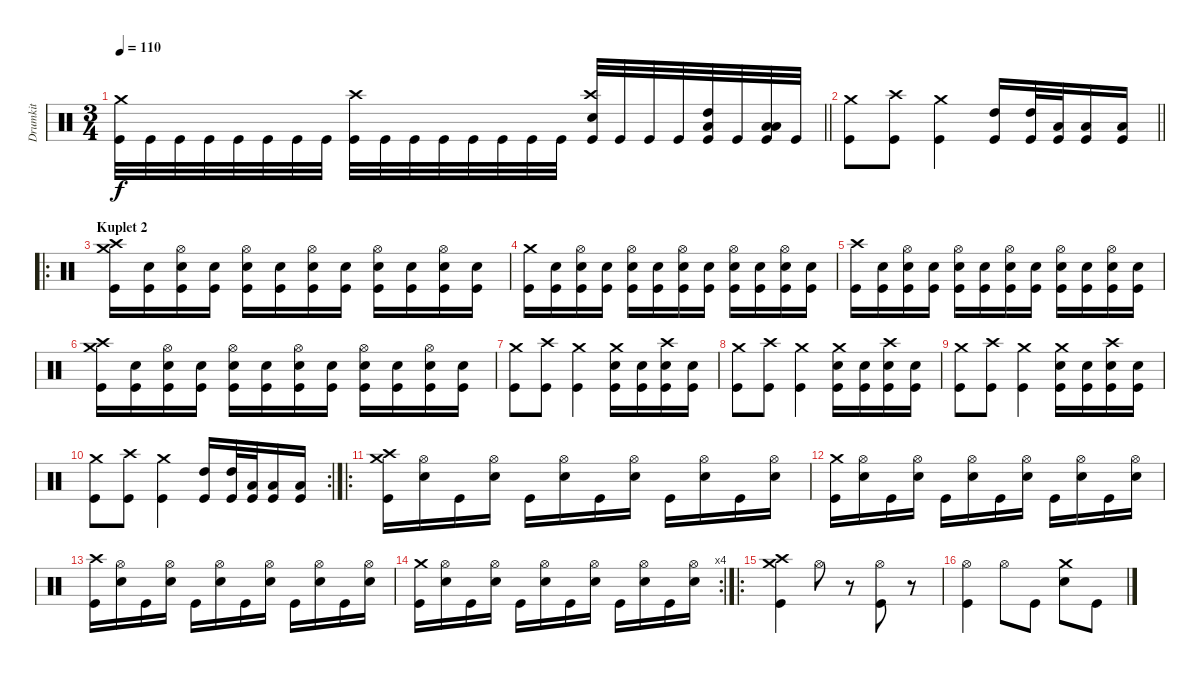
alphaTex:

\track ("Drumkit" "Drumkit") {instrument percussion}
\staff {score}
\articulation defaults
\ts (3 4)
\tempo 110
\clef neutral
\barLineRight lightlight
\ks c
("Crash medium (hit)" "Kick (hit)").32{dy f} "Kick (hit)".32 "Kick (hit)".32 "Kick (hit)".32 "Kick (hit)".32 "Kick (hit)".32 "Kick (hit)".32 "Kick (hit)".32 ("Crash high (hit)" "Kick (hit)").32 "Kick (hit)".32 "Kick (hit)".32 "Kick (hit)".32 "Kick (hit)".32 "Kick (hit)".32 "Kick (hit)".32 "Kick (hit)".32 ("Crash high (hit)" "Snare (hit) 2" "Kick (hit)").32 "Kick (hit)".32 "Kick (hit)".32 "Kick (hit)".32 ("Low Tom (hit)" "High Tom (hit)" "Kick (hit)").32 "Kick (hit)".32 ("Low Tom (hit)" "Low Floor Tom (hit)" "Kick (hit)").32 "Kick (hit)".32 |
\barLineRight lightlight
("Crash medium (hit)" "Kick (hit)").8 ("Crash high (hit)" "Kick (hit)").8 ("Crash medium (hit)" "Kick (hit)").4 ("High Tom (hit)" "Kick (hit)").16 ("High Tom (hit)" "Kick (hit)").32 ("Low Tom (hit)" "Kick (hit)").32 ("Low Tom (hit)" "Kick (hit)").16 ("Low Tom (hit)" "Kick (hit)").16 |
\ro
\section ("" "Kuplet 2")
("Crash high (hit)" "Crash medium (hit)" "Kick (hit)").16 ("Snare (hit) 2" "Kick (hit)").16 ("Hi-Hat (open)" "Snare (hit) 2" "Kick (hit)").16 ("Snare (hit) 2" "Kick (hit)").16 ("Hi-Hat (open)" "Snare (hit) 2" "Kick (hit)").16 ("Snare (hit) 2" "Kick (hit)").16 ("Hi-Hat (open)" "Snare (hit) 2" "Kick (hit)").16 ("Snare (hit) 2" "Kick (hit)").16 ("Hi-Hat (open)" "Snare (hit) 2" "Kick (hit)").16 ("Snare (hit) 2" "Kick (hit)").16 ("Hi-Hat (open)" "Snare (hit) 2" "Kick (hit)").16 ("Snare (hit) 2" "Kick (hit)").16 |
("Crash medium (hit)" "Kick (hit)").16 ("Snare (hit) 2" "Kick (hit)").16 ("Hi-Hat (open)" "Snare (hit) 2" "Kick (hit)").16 ("Snare (hit) 2" "Kick (hit)").16 ("Hi-Hat (open)" "Snare (hit) 2" "Kick (hit)").16 ("Snare (hit) 2" "Kick (hit)").16 ("Hi-Hat (open)" "Snare (hit) 2" "Kick (hit)").16 ("Snare (hit) 2" "Kick (hit)").16 ("Hi-Hat (open)" "Snare (hit) 2" "Kick (hit)").16 ("Snare (hit) 2" "Kick (hit)").16 ("Hi-Hat (open)" "Snare (hit) 2" "Kick (hit)").16 ("Snare (hit) 2" "Kick (hit)").16 |
("Crash high (hit)" "Kick (hit)").16 ("Snare (hit) 2" "Kick (hit)").16 ("Hi-Hat (open)" "Snare (hit) 2" "Kick (hit)").16 ("Snare (hit) 2" "Kick (hit)").16 ("Hi-Hat (open)" "Snare (hit) 2" "Kick (hit)").16 ("Snare (hit) 2" "Kick (hit)").16 ("Hi-Hat (open)" "Snare (hit) 2" "Kick (hit)").16 ("Snare (hit) 2" "Kick (hit)").16 ("Hi-Hat (open)" "Snare (hit) 2" "Kick (hit)").16 ("Snare (hit) 2" "Kick (hit)").16 ("Hi-Hat (open)" "Snare (hit) 2" "Kick (hit)").16 ("Snare (hit) 2" "Kick (hit)").16 |
("Crash high (hit)" "Crash medium (hit)" "Kick (hit)").16 ("Snare (hit) 2" "Kick (hit)").16 ("Hi-Hat (open)" "Snare (hit) 2" "Kick (hit)").16 ("Snare (hit) 2" "Kick (hit)").16 ("Hi-Hat (open)" "Snare (hit) 2" "Kick (hit)").16 ("Snare (hit) 2" "Kick (hit)").16 ("Hi-Hat (open)" "Snare (hit) 2" "Kick (hit)").16 ("Snare (hit) 2" "Kick (hit)").16 ("Hi-Hat (open)" "Snare (hit) 2" "Kick (hit)").16 ("Snare (hit) 2" "Kick (hit)").16 ("Hi-Hat (open)" "Snare (hit) 2" "Kick (hit)").16 ("Snare (hit) 2" "Kick (hit)").16 |
("Crash medium (hit)" "Kick (hit)").8 ("Crash high (hit)" "Kick (hit)").8 ("Crash medium (hit)" "Kick (hit)").4 ("Crash medium (hit)" "Snare (hit) 2" "Kick (hit)").16 ("Snare (hit) 2" "Kick (hit)").16 ("Crash high (hit)" "Snare (hit) 2" "Kick (hit)").16 ("Snare (hit) 2" "Kick (hit)").16 |
("Crash medium (hit)" "Kick (hit)").8 ("Crash high (hit)" "Kick (hit)").8 ("Crash medium (hit)" "Kick (hit)").4 ("Crash medium (hit)" "Snare (hit) 2" "Kick (hit)").16 ("Snare (hit) 2" "Kick (hit)").16 ("Crash high (hit)" "Snare (hit) 2" "Kick (hit)").16 ("Snare (hit) 2" "Kick (hit)").16 |
("Crash medium (hit)" "Kick (hit)").8 ("Crash high (hit)" "Kick (hit)").8 ("Crash medium (hit)" "Kick (hit)").4 ("Crash medium (hit)" "Snare (hit) 2" "Kick (hit)").16 ("Snare (hit) 2" "Kick (hit)").16 ("Crash high (hit)" "Snare (hit) 2" "Kick (hit)").16 ("Snare (hit) 2" "Kick (hit)").16 |
\rc 2
("Crash medium (hit)" "Kick (hit)").8 ("Crash high (hit)" "Kick (hit)").8 ("Crash medium (hit)" "Kick (hit)").4 ("High Tom (hit)" "Kick (hit)").16 ("High Tom (hit)" "Kick (hit)").32 ("Low Tom (hit)" "Kick (hit)").32 ("Low Tom (hit)" "Kick (hit)").16 ("Low Tom (hit)" "Kick (hit)").16 |
\ro
("Crash high (hit)" "Crash medium (hit)" "Kick (hit)").16 ("Hi-Hat (open)" "Snare (hit) 2").16 "Kick (hit)".16 ("Hi-Hat (open)" "Snare (hit) 2").16 "Kick (hit)".16 ("Hi-Hat (open)" "Snare (hit) 2").16 "Kick (hit)".16 ("Hi-Hat (open)" "Snare (hit) 2").16 "Kick (hit)".16 ("Hi-Hat (open)" "Snare (hit) 2").16 "Kick (hit)".16 ("Hi-Hat (open)" "Snare (hit) 2").16 |
("Crash medium (hit)" "Kick (hit)").16 ("Hi-Hat (open)" "Snare (hit) 2").16 "Kick (hit)".16 ("Hi-Hat (open)" "Snare (hit) 2").16 "Kick (hit)".16 ("Hi-Hat (open)" "Snare (hit) 2").16 "Kick (hit)".16 ("Hi-Hat (open)" "Snare (hit) 2").16 "Kick (hit)".16 ("Hi-Hat (open)" "Snare (hit) 2").16 "Kick (hit)".16 ("Hi-Hat (open)" "Snare (hit) 2").16 |
("Crash high (hit)" "Kick (hit)").16 ("Hi-Hat (open)" "Snare (hit) 2").16 "Kick (hit)".16 ("Hi-Hat (open)" "Snare (hit) 2").16 "Kick (hit)".16 ("Hi-Hat (open)" "Snare (hit) 2").16 "Kick (hit)".16 ("Hi-Hat (open)" "Snare (hit) 2").16 "Kick (hit)".16 ("Hi-Hat (open)" "Snare (hit) 2").16 "Kick (hit)".16 ("Hi-Hat (open)" "Snare (hit) 2").16 |
\rc 4
("Crash medium (hit)" "Kick (hit)").16 ("Hi-Hat (open)" "Snare (hit) 2").16 "Kick (hit)".16 ("Hi-Hat (open)" "Snare (hit) 2").16 "Kick (hit)".16 ("Hi-Hat (open)" "Snare (hit) 2").16 "Kick (hit)".16 ("Hi-Hat (open)" "Snare (hit) 2").16 "Kick (hit)".16 ("Hi-Hat (open)" "Snare (hit) 2").16 "Kick (hit)".16 ("Hi-Hat (open)" "Snare (hit) 2").16 |
\ro
("Crash high (hit)" "Crash medium (hit)" "Kick (hit)").4 "Hi-Hat (open)".8 r.8 ("Hi-Hat (open)" "Kick (hit)").8 r.8 |
("Hi-Hat (open)" "Kick (hit)").4 "Hi-Hat (open)".8 "Kick (hit)".8 ("Crash medium (hit)" "Snare (hit) 2").8 "Kick (hit)".8
